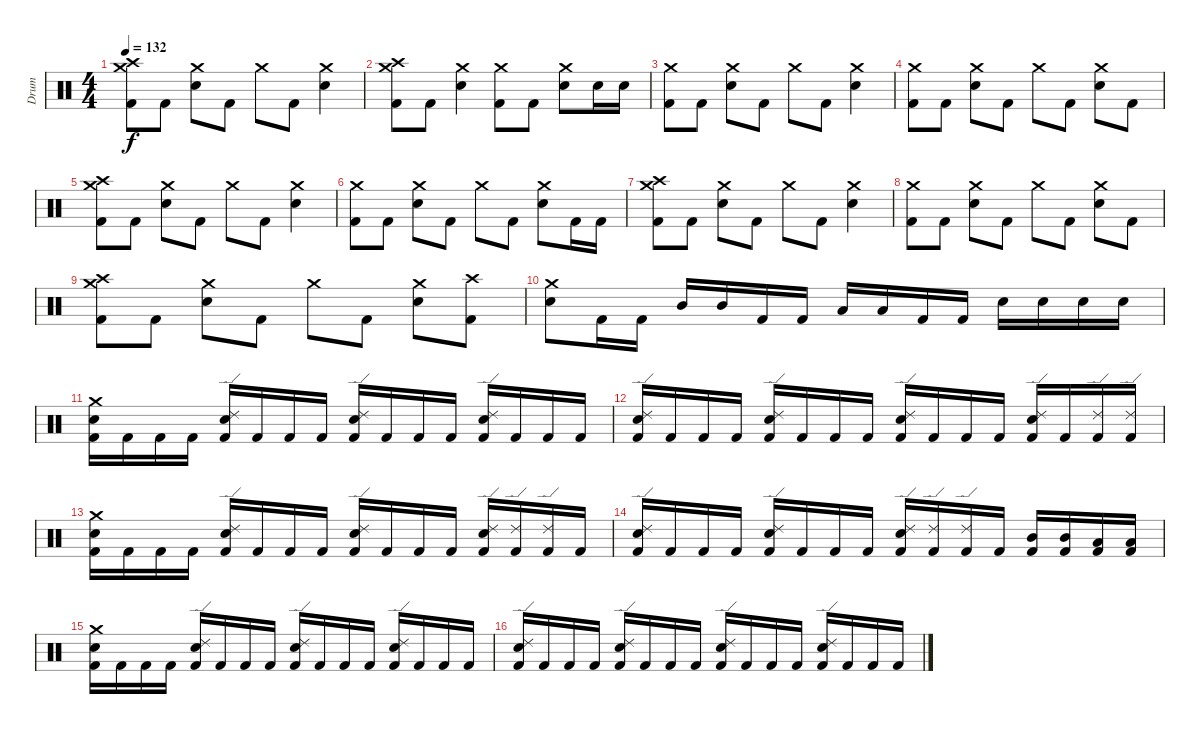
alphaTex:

\track ("Drum" "Drum") {instrument percussion}
\staff {score}
\articulation defaults
\ts (4 4)
\tempo 132
\clef neutral
\ks c
("Crash medium (hit)" "Crash high (hit)" "Kick (hit) 2").8{dy f} "Kick (hit) 2".8 ("Crash medium (hit)" "Snare (hit) 2").8 "Kick (hit) 2".8 "Crash medium (hit)".8 "Kick (hit) 2".8 ("Crash medium (hit)" "Snare (hit) 2").4 |
("Crash medium (hit)" "Crash high (hit)" "Kick (hit) 2").8 "Kick (hit) 2".8 ("Crash medium (hit)" "Snare (hit) 2").4 ("Crash medium (hit)" "Kick (hit) 2").8 "Kick (hit) 2".8 ("Crash medium (hit)" "Snare (hit) 2").8 "Snare (hit) 2".16 "Snare (hit) 2".16 |
("Crash medium (hit)" "Kick (hit) 2").8 "Kick (hit) 2".8 ("Crash medium (hit)" "Snare (hit) 2").8 "Kick (hit) 2".8 "Crash medium (hit)".8 "Kick (hit) 2".8 ("Crash medium (hit)" "Snare (hit) 2").4 |
("Crash medium (hit)" "Kick (hit) 2").8 "Kick (hit) 2".8 ("Crash medium (hit)" "Snare (hit) 2").8 "Kick (hit) 2".8 "Crash medium (hit)".8 "Kick (hit) 2".8 ("Crash medium (hit)" "Snare (hit) 2").8 "Kick (hit) 2".8 |
("Crash medium (hit)" "Crash high (hit)" "Kick (hit) 2").8 "Kick (hit) 2".8 ("Crash medium (hit)" "Snare (hit) 2").8 "Kick (hit) 2".8 "Crash medium (hit)".8 "Kick (hit) 2".8 ("Crash medium (hit)" "Snare (hit) 2").4 |
("Crash medium (hit)" "Kick (hit) 2").8 "Kick (hit) 2".8 ("Crash medium (hit)" "Snare (hit) 2").8 "Kick (hit) 2".8 "Crash medium (hit)".8 "Kick (hit) 2".8 ("Crash medium (hit)" "Snare (hit) 2").8 "Kick (hit) 2".16 "Kick (hit) 2".16 |
("Crash medium (hit)" "Crash high (hit)" "Kick (hit) 2").8 "Kick (hit) 2".8 ("Crash medium (hit)" "Snare (hit) 2").8 "Kick (hit) 2".8 "Crash medium (hit)".8 "Kick (hit) 2".8 ("Crash medium (hit)" "Snare (hit) 2").4 |
("Crash medium (hit)" "Kick (hit) 2").8 "Kick (hit) 2".8 ("Crash medium (hit)" "Snare (hit) 2").8 "Kick (hit) 2".8 "Crash medium (hit)".8 "Kick (hit) 2".8 ("Crash medium (hit)" "Snare (hit) 2").8 "Kick (hit) 2".8 |
("Crash medium (hit)" "Crash high (hit)" "Kick (hit) 2").8 "Kick (hit) 2".8 ("Crash medium (hit)" "Snare (hit) 2").8 "Kick (hit) 2".8 "Crash medium (hit)".8 "Kick (hit) 2".8 ("Crash medium (hit)" "Snare (hit) 2").8 ("Crash high (hit)" "Kick (hit) 2").8 |
("Crash medium (hit)" "Snare (hit) 2").8 "Kick (hit) 2".16 "Kick (hit) 2".16 "Mid Tom (hit)".16 "Mid Tom (hit)".16 "Kick (hit) 2".16 "Kick (hit) 2".16 "Low Tom (hit)".16 "Low Tom (hit)".16 "Kick (hit) 2".16 "Kick (hit) 2".16 "Snare (hit) 2".16 "Snare (hit) 2".16 "Snare (hit) 2".16 "Snare (hit) 2".16 |
("Crash medium (hit)" "Snare (hit) 2" "Kick (hit) 2").16 "Kick (hit) 2".16 "Kick (hit) 2".16 "Kick (hit) 2".16 ("Ride (edge) 2" "Snare (hit) 2" "Kick (hit) 2").16 "Kick (hit) 2".16 "Kick (hit) 2".16 "Kick (hit) 2".16 ("Ride (edge) 2" "Snare (hit) 2" "Kick (hit) 2").16 "Kick (hit) 2".16 "Kick (hit) 2".16 "Kick (hit) 2".16 ("Ride (edge) 2" "Snare (hit) 2" "Kick (hit) 2").16 "Kick (hit) 2".16 "Kick (hit) 2".16 "Kick (hit) 2".16 |
("Ride (edge) 2" "Snare (hit) 2" "Kick (hit) 2").16 "Kick (hit) 2".16 "Kick (hit) 2".16 "Kick (hit) 2".16 ("Ride (edge) 2" "Snare (hit) 2" "Kick (hit) 2").16 "Kick (hit) 2".16 "Kick (hit) 2".16 "Kick (hit) 2".16 ("Ride (edge) 2" "Snare (hit) 2" "Kick (hit) 2").16 "Kick (hit) 2".16 "Kick (hit) 2".16 "Kick (hit) 2".16 ("Ride (edge) 2" "Snare (hit) 2" "Kick (hit) 2").16 "Kick (hit) 2".16 ("Ride (edge) 2" "Kick (hit) 2").16 ("Ride (edge) 2" "Kick (hit) 2").16 |
("Crash medium (hit)" "Snare (hit) 2" "Kick (hit) 2").16 "Kick (hit) 2".16 "Kick (hit) 2".16 "Kick (hit) 2".16 ("Ride (edge) 2" "Snare (hit) 2" "Kick (hit) 2").16 "Kick (hit) 2".16 "Kick (hit) 2".16 "Kick (hit) 2".16 ("Ride (edge) 2" "Snare (hit) 2" "Kick (hit) 2").16 "Kick (hit) 2".16 "Kick (hit) 2".16 "Kick (hit) 2".16 ("Ride (edge) 2" "Snare (hit) 2" "Kick (hit) 2").16 ("Ride (edge) 2" "Kick (hit) 2").16 ("Ride (edge) 2" "Kick (hit) 2").16 "Kick (hit) 2".16 |
("Ride (edge) 2" "Snare (hit) 2" "Kick (hit) 2").16 "Kick (hit) 2".16 "Kick (hit) 2".16 "Kick (hit) 2".16 ("Ride (edge) 2" "Snare (hit) 2" "Kick (hit) 2").16 "Kick (hit) 2".16 "Kick (hit) 2".16 "Kick (hit) 2".16 ("Ride (edge) 2" "Snare (hit) 2" "Kick (hit) 2").16 ("Ride (edge) 2" "Kick (hit) 2").16 ("Ride (edge) 2" "Kick (hit) 2").16 "Kick (hit) 2".16 ("Mid Tom (hit)" "Kick (hit) 2").16 ("Mid Tom (hit)" "Kick (hit) 2").16 ("Low Tom (hit)" "Kick (hit) 2").16 ("Low Tom (hit)" "Kick (hit) 2").16 |
("Crash medium (hit)" "Snare (hit) 2" "Kick (hit) 2").16 "Kick (hit) 2".16 "Kick (hit) 2".16 "Kick (hit) 2".16 ("Ride (edge) 2" "Snare (hit) 2" "Kick (hit) 2").16 "Kick (hit) 2".16 "Kick (hit) 2".16 "Kick (hit) 2".16 ("Ride (edge) 2" "Snare (hit) 2" "Kick (hit) 2").16 "Kick (hit) 2".16 "Kick (hit) 2".16 "Kick (hit) 2".16 ("Ride (edge) 2" "Snare (hit) 2" "Kick (hit) 2").16 "Kick (hit) 2".16 "Kick (hit) 2".16 "Kick (hit) 2".16 |
("Ride (edge) 2" "Snare (hit) 2" "Kick (hit) 2").16 "Kick (hit) 2".16 "Kick (hit) 2".16 "Kick (hit) 2".16 ("Ride (edge) 2" "Snare (hit) 2" "Kick (hit) 2").16 "Kick (hit) 2".16 "Kick (hit) 2".16 "Kick (hit) 2".16 ("Ride (edge) 2" "Snare (hit) 2" "Kick (hit) 2").16 "Kick (hit) 2".16 "Kick (hit) 2".16 "Kick (hit) 2".16 ("Ride (edge) 2" "Snare (hit) 2" "Kick (hit) 2").16 "Kick (hit) 2".16 "Kick (hit) 2".16 "Kick (hit) 2".16
